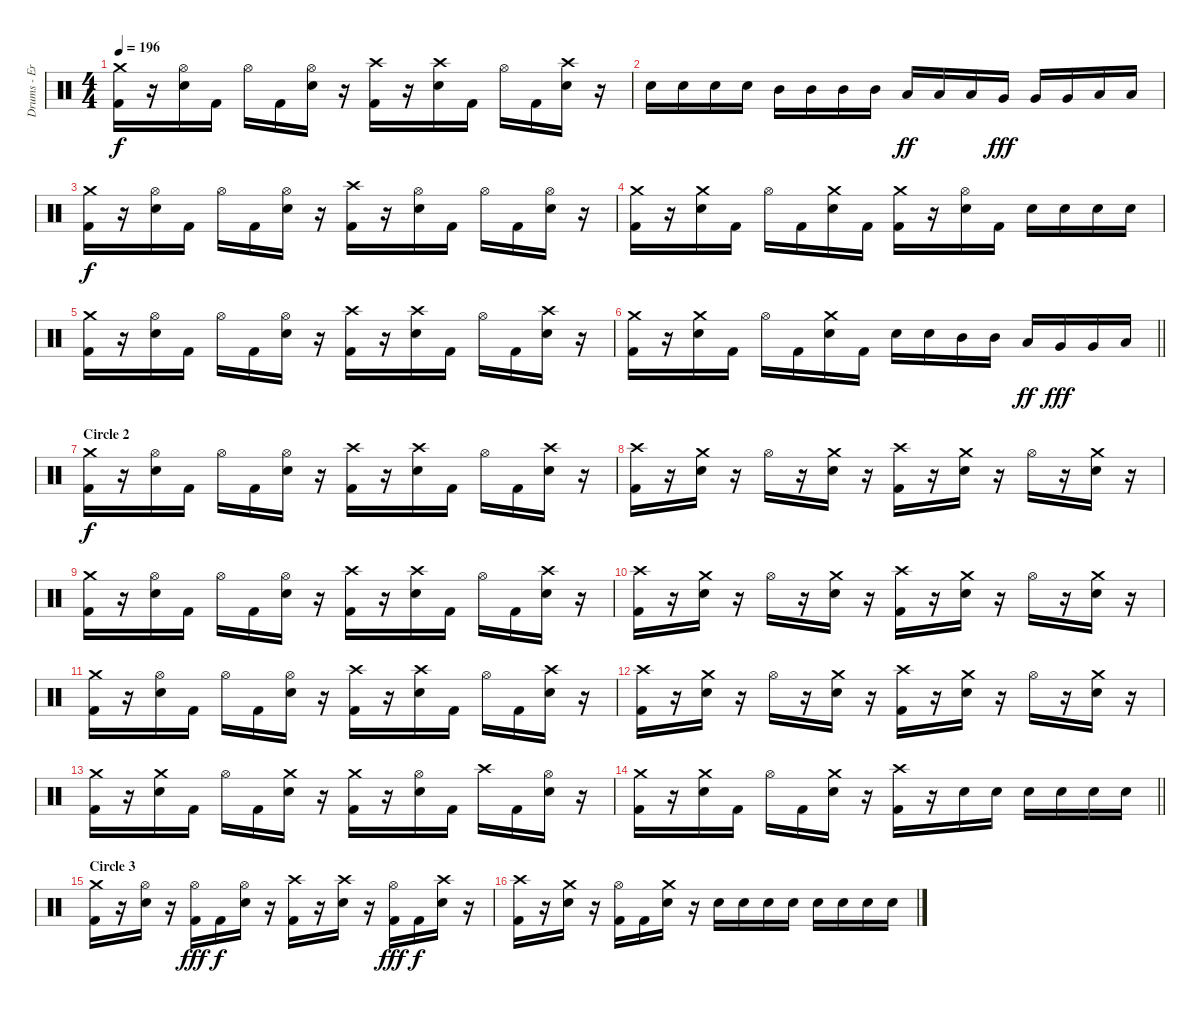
\track ("Drums - Erik Sandin" "Drums - Er") {instrument percussion}
\staff {score}
\articulation defaults
\ts (4 4)
\tempo 196
\clef neutral
\ks c
("Crash medium (hit)" "Kick (hit) 2").16{dy f} r.16 ("Hi-Hat (open)" "Electric Snare (hit)").16 "Kick (hit) 2".16 "Hi-Hat (open)".16 "Kick (hit) 2".16 ("Hi-Hat (open)" "Electric Snare (hit)").16 r.16 ("Crash high (hit)" "Kick (hit) 2").16 r.16 ("Crash high (hit)" "Electric Snare (hit)").16 "Kick (hit) 2".16 "Hi-Hat (open)".16 "Kick (hit) 2".16 ("Crash high (hit)" "Electric Snare (hit)").16 r.16 |
"Electric Snare (hit)".16 "Electric Snare (hit)".16 "Electric Snare (hit)".16 "Electric Snare (hit)".16 "Mid Tom (hit)".16 "Mid Tom (hit)".16 "Mid Tom (hit)".16 "Mid Tom (hit)".16 "Low Tom (hit)".16{dy ff} "Low Tom (hit)".16 "Low Tom (hit)".16 "Very Low Tom (hit)".16{dy fff} "Very Low Tom (hit)".16 "Very Low Tom (hit)".16 "Low Floor Tom (hit)".16 "Low Floor Tom (hit)".16 |
("Crash medium (hit)" "Kick (hit) 2").16{dy f} r.16 ("Hi-Hat (open)" "Electric Snare (hit)").16 "Kick (hit) 2".16 "Hi-Hat (open)".16 "Kick (hit) 2".16 ("Hi-Hat (open)" "Electric Snare (hit)").16 r.16 ("Crash high (hit)" "Kick (hit) 2").16 r.16 ("Hi-Hat (open)" "Electric Snare (hit)").16 "Kick (hit) 2".16 "Hi-Hat (open)".16 "Kick (hit) 2".16 ("Hi-Hat (open)" "Electric Snare (hit)").16 r.16 |
("Crash medium (hit)" "Kick (hit) 2").16 r.16 ("Crash medium (hit)" "Electric Snare (hit)").16 "Kick (hit) 2".16 "Hi-Hat (open)".16 "Kick (hit) 2".16 ("Crash medium (hit)" "Electric Snare (hit)").16 "Kick (hit) 2".16 ("Crash medium (hit)" "Kick (hit) 2").16 r.16 ("Hi-Hat (open)" "Electric Snare (hit)").16 "Kick (hit) 2".16 "Electric Snare (hit)".16 "Electric Snare (hit)".16 "Electric Snare (hit)".16 "Electric Snare (hit)".16 |
("Crash medium (hit)" "Kick (hit) 2").16 r.16 ("Hi-Hat (open)" "Electric Snare (hit)").16 "Kick (hit) 2".16 "Hi-Hat (open)".16 "Kick (hit) 2".16 ("Hi-Hat (open)" "Electric Snare (hit)").16 r.16 ("Crash high (hit)" "Kick (hit) 2").16 r.16 ("Crash high (hit)" "Electric Snare (hit)").16 "Kick (hit) 2".16 "Hi-Hat (open)".16 "Kick (hit) 2".16 ("Crash high (hit)" "Electric Snare (hit)").16 r.16 |
\barLineRight lightlight
("Crash medium (hit)" "Kick (hit) 2").16 r.16 ("Crash medium (hit)" "Electric Snare (hit)").16 "Kick (hit) 2".16 "Hi-Hat (open)".16 "Kick (hit) 2".16 ("Crash medium (hit)" "Electric Snare (hit)").16 "Kick (hit) 2".16 "Electric Snare (hit)".16 "Electric Snare (hit)".16 "Mid Tom (hit)".16 "Mid Tom (hit)".16 "Low Tom (hit)".16{dy ff} "Very Low Tom (hit)".16{dy fff} "Very Low Tom (hit)".16 "Low Floor Tom (hit)".16 |
\section ("" "Circle 2")
("Crash medium (hit)" "Kick (hit) 2").16{dy f} r.16 ("Hi-Hat (open)" "Electric Snare (hit)").16 "Kick (hit) 2".16 "Hi-Hat (open)".16 "Kick (hit) 2".16 ("Hi-Hat (open)" "Electric Snare (hit)").16 r.16 ("Crash high (hit)" "Kick (hit) 2").16 r.16 ("Crash high (hit)" "Electric Snare (hit)").16 "Kick (hit) 2".16 "Hi-Hat (open)".16 "Kick (hit) 2".16 ("Crash high (hit)" "Electric Snare (hit)").16 r.16 |
("Crash high (hit)" "Kick (hit) 2").16 r.16 ("Crash medium (hit)" "Electric Snare (hit)").16 r.16 "Hi-Hat (open)".16 r.16 ("Crash medium (hit)" "Electric Snare (hit)").16 r.16 ("Crash high (hit)" "Kick (hit) 2").16 r.16 ("Crash medium (hit)" "Electric Snare (hit)").16 r.16 "Hi-Hat (open)".16 r.16 ("Crash medium (hit)" "Electric Snare (hit)").16 r.16 |
("Crash medium (hit)" "Kick (hit) 2").16 r.16 ("Hi-Hat (open)" "Electric Snare (hit)").16 "Kick (hit) 2".16 "Hi-Hat (open)".16 "Kick (hit) 2".16 ("Hi-Hat (open)" "Electric Snare (hit)").16 r.16 ("Crash high (hit)" "Kick (hit) 2").16 r.16 ("Crash high (hit)" "Electric Snare (hit)").16 "Kick (hit) 2".16 "Hi-Hat (open)".16 "Kick (hit) 2".16 ("Crash high (hit)" "Electric Snare (hit)").16 r.16 |
("Crash high (hit)" "Kick (hit) 2").16 r.16 ("Crash medium (hit)" "Electric Snare (hit)").16 r.16 "Hi-Hat (open)".16 r.16 ("Crash medium (hit)" "Electric Snare (hit)").16 r.16 ("Crash high (hit)" "Kick (hit) 2").16 r.16 ("Crash medium (hit)" "Electric Snare (hit)").16 r.16 "Hi-Hat (open)".16 r.16 ("Crash medium (hit)" "Electric Snare (hit)").16 r.16 |
("Crash medium (hit)" "Kick (hit) 2").16 r.16 ("Hi-Hat (open)" "Electric Snare (hit)").16 "Kick (hit) 2".16 "Hi-Hat (open)".16 "Kick (hit) 2".16 ("Hi-Hat (open)" "Electric Snare (hit)").16 r.16 ("Crash high (hit)" "Kick (hit) 2").16 r.16 ("Crash high (hit)" "Electric Snare (hit)").16 "Kick (hit) 2".16 "Hi-Hat (open)".16 "Kick (hit) 2".16 ("Crash high (hit)" "Electric Snare (hit)").16 r.16 |
("Crash high (hit)" "Kick (hit) 2").16 r.16 ("Crash medium (hit)" "Electric Snare (hit)").16 r.16 "Hi-Hat (open)".16 r.16 ("Crash medium (hit)" "Electric Snare (hit)").16 r.16 ("Crash high (hit)" "Kick (hit) 2").16 r.16 ("Crash medium (hit)" "Electric Snare (hit)").16 r.16 "Hi-Hat (open)".16 r.16 ("Crash medium (hit)" "Electric Snare (hit)").16 r.16 |
("Crash medium (hit)" "Kick (hit) 2").16 r.16 ("Crash medium (hit)" "Electric Snare (hit)").16 "Kick (hit) 2".16 "Hi-Hat (open)".16 "Kick (hit) 2".16 ("Crash medium (hit)" "Electric Snare (hit)").16 r.16 ("Crash medium (hit)" "Kick (hit) 2").16 r.16 ("Hi-Hat (open)" "Electric Snare (hit)").16 "Kick (hit) 2".16 "Crash high (hit)".16 "Kick (hit) 2".16 ("Hi-Hat (open)" "Electric Snare (hit)").16 r.16 |
\barLineRight lightlight
("Crash medium (hit)" "Kick (hit) 2").16 r.16 ("Crash medium (hit)" "Electric Snare (hit)").16 "Kick (hit) 2".16 "Hi-Hat (open)".16 "Kick (hit) 2".16 ("Crash medium (hit)" "Electric Snare (hit)").16 r.16 ("Crash high (hit)" "Kick (hit) 2").16 r.16 "Electric Snare (hit)".16 "Electric Snare (hit)".16 "Electric Snare (hit)".16 "Electric Snare (hit)".16 "Electric Snare (hit)".16 "Electric Snare (hit)".16 |
\section ("" "Circle 3")
("Crash medium (hit)" "Kick (hit) 2").16 r.16 ("Hi-Hat (open)" "Electric Snare (hit)").16 r.16 ("Hi-Hat (open)" "Kick (hit) 2").16{dy fff} "Kick (hit) 2".16{dy f} ("Hi-Hat (open)" "Electric Snare (hit)").16 r.16 ("Crash high (hit)" "Kick (hit) 2").16 r.16 ("Crash high (hit)" "Electric Snare (hit)").16 r.16 ("Hi-Hat (open)" "Kick (hit) 2").16{dy fff} "Kick (hit) 2".16{dy f} ("Crash high (hit)" "Electric Snare (hit)").16 r.16 |
("Crash high (hit)" "Kick (hit) 2").16 r.16 ("Crash medium (hit)" "Electric Snare (hit)").16 r.16 ("Hi-Hat (open)" "Kick (hit) 2").16 "Kick (hit) 2".16 ("Crash medium (hit)" "Electric Snare (hit)").16 r.16 "Electric Snare (hit)".16 "Electric Snare (hit)".16 "Electric Snare (hit)".16 "Electric Snare (hit)".16 "Electric Snare (hit)".16 "Electric Snare (hit)".16 "Electric Snare (hit)".16 "Electric Snare (hit)".16
